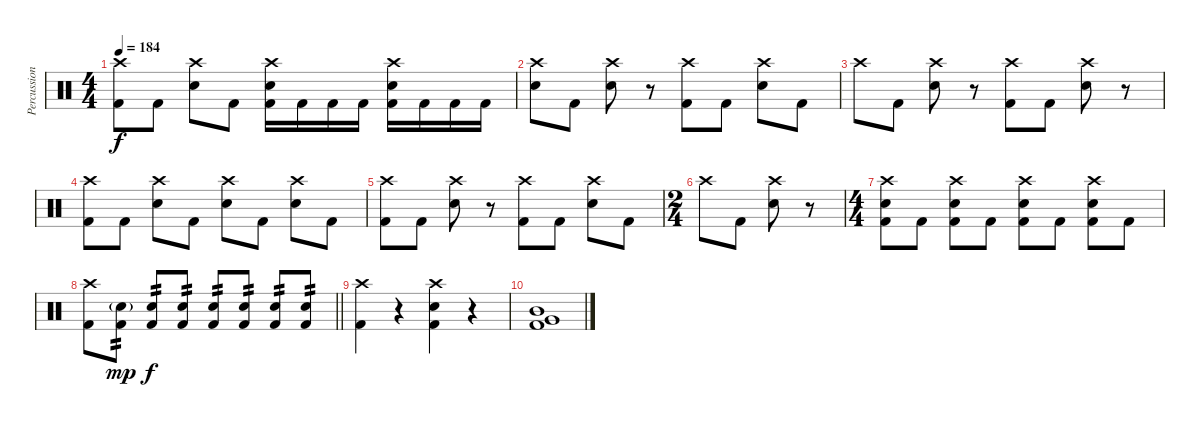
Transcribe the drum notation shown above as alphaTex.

\track ("Percussion" "Percussion") {instrument percussion}
\staff {score}
\articulation defaults
\ts (4 4)
\tempo 184
\clef neutral
\ks c
("Crash high (hit)" "Kick (hit) 2").8{dy f} "Kick (hit) 2".8 ("Crash high (hit)" "Electric Snare (hit)").8 "Kick (hit) 2".8 ("Crash high (hit)" "Electric Snare (hit)" "Kick (hit) 2").16 "Kick (hit) 2".16 "Kick (hit) 2".16 "Kick (hit) 2".16 ("Crash high (hit)" "Electric Snare (hit)" "Kick (hit) 2").16 "Kick (hit) 2".16 "Kick (hit) 2".16 "Kick (hit) 2".16 |
("Crash high (hit)" "Electric Snare (hit)").8 "Kick (hit) 2".8 ("Crash high (hit)" "Electric Snare (hit)").8 r.8 ("Crash high (hit)" "Kick (hit) 2").8 "Kick (hit) 2".8 ("Crash high (hit)" "Electric Snare (hit)").8 "Kick (hit) 2".8 |
"Crash high (hit)".8 "Kick (hit) 2".8 ("Crash high (hit)" "Electric Snare (hit)").8 r.8 ("Crash high (hit)" "Kick (hit) 2").8 "Kick (hit) 2".8 ("Crash high (hit)" "Electric Snare (hit)").8 r.8 |
("Crash high (hit)" "Kick (hit) 2").8 "Kick (hit) 2".8 ("Crash high (hit)" "Electric Snare (hit)").8 "Kick (hit) 2".8 ("Crash high (hit)" "Electric Snare (hit)").8 "Kick (hit) 2".8 ("Crash high (hit)" "Electric Snare (hit)").8 "Kick (hit) 2".8 |
("Crash high (hit)" "Kick (hit) 2").8 "Kick (hit) 2".8 ("Crash high (hit)" "Electric Snare (hit)").8 r.8 ("Crash high (hit)" "Kick (hit) 2").8 "Kick (hit) 2".8 ("Crash high (hit)" "Electric Snare (hit)").8 "Kick (hit) 2".8 |
\ts (2 4)
"Crash high (hit)".8 "Kick (hit) 2".8 ("Crash high (hit)" "Electric Snare (hit)").8 r.8 |
\ts (4 4)
("Crash high (hit)" "Electric Snare (hit)" "Kick (hit) 2").8 "Kick (hit) 2".8 ("Crash high (hit)" "Electric Snare (hit)" "Kick (hit) 2").8 "Kick (hit) 2".8 ("Crash high (hit)" "Electric Snare (hit)" "Kick (hit) 2").8 "Kick (hit) 2".8 ("Crash high (hit)" "Electric Snare (hit)" "Kick (hit) 2").8 "Kick (hit) 2".8 |
\barLineRight lightlight
("Crash high (hit)" "Kick (hit) 2").8 ("Electric Snare (hit)"{g} "Kick (hit) 2").8{tp 2 dy mp} ("Electric Snare (hit)" "Kick (hit) 2").8{tp 2 dy f} ("Electric Snare (hit)" "Kick (hit) 2").8{tp 2} ("Electric Snare (hit)" "Kick (hit) 2").8{tp 2} ("Electric Snare (hit)" "Kick (hit) 2").8{tp 2} ("Electric Snare (hit)" "Kick (hit) 2").8{tp 2} ("Electric Snare (hit)" "Kick (hit) 2").8{tp 2} |
("Crash high (hit)" "Kick (hit) 2").4 r.4 ("Crash high (hit)" "Electric Snare (hit)" "Kick (hit) 2").4 r.4 |
("Mid Tom (hit)" "Very Low Tom (hit)" "Kick (hit) 2").1
